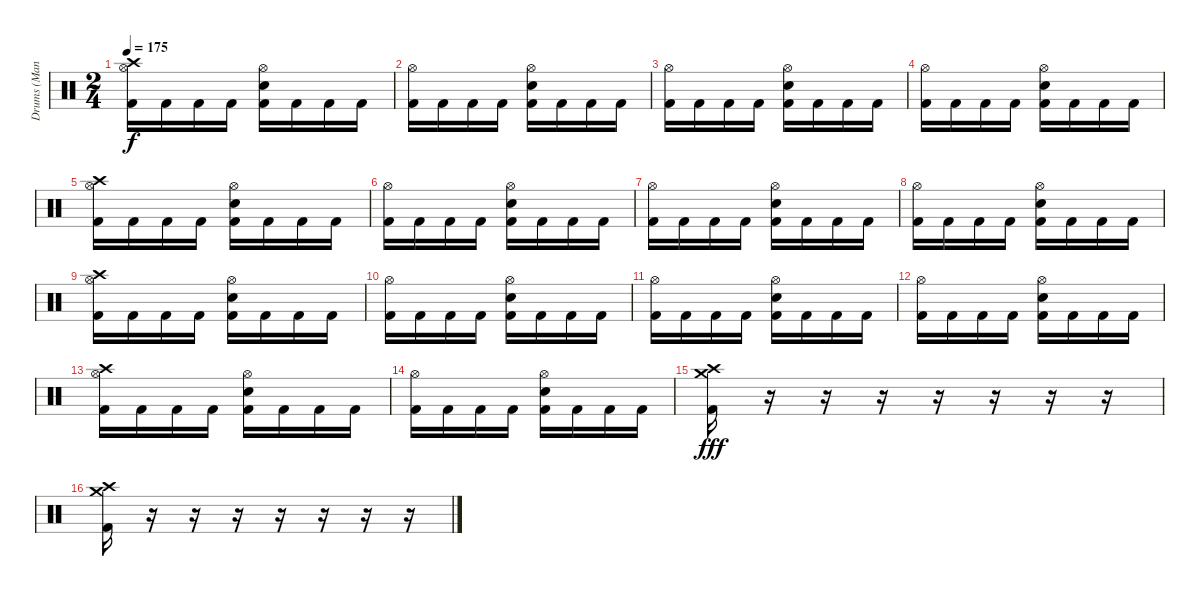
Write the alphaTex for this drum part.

\track ("Drums (Mancino)" "Drums (Man") {instrument percussion}
\staff {score}
\articulation defaults
\ts (2 4)
\tempo 175
\clef neutral
\ks c
("Hi-Hat (open)" "Crash high (hit)" "Kick (hit) 2").16{dy f} "Kick (hit) 2".16 "Kick (hit) 2".16 "Kick (hit) 2".16 ("Hi-Hat (open)" "Electric Snare (hit)" "Kick (hit) 2").16 "Kick (hit) 2".16 "Kick (hit) 2".16 "Kick (hit) 2".16 |
("Hi-Hat (open)" "Kick (hit) 2").16 "Kick (hit) 2".16 "Kick (hit) 2".16 "Kick (hit) 2".16 ("Hi-Hat (open)" "Electric Snare (hit)" "Kick (hit) 2").16 "Kick (hit) 2".16 "Kick (hit) 2".16 "Kick (hit) 2".16 |
("Hi-Hat (open)" "Kick (hit) 2").16 "Kick (hit) 2".16 "Kick (hit) 2".16 "Kick (hit) 2".16 ("Hi-Hat (open)" "Electric Snare (hit)" "Kick (hit) 2").16 "Kick (hit) 2".16 "Kick (hit) 2".16 "Kick (hit) 2".16 |
("Hi-Hat (open)" "Kick (hit) 2").16 "Kick (hit) 2".16 "Kick (hit) 2".16 "Kick (hit) 2".16 ("Hi-Hat (open)" "Electric Snare (hit)" "Kick (hit) 2").16 "Kick (hit) 2".16 "Kick (hit) 2".16 "Kick (hit) 2".16 |
("Hi-Hat (open)" "Crash high (hit)" "Kick (hit) 2").16 "Kick (hit) 2".16 "Kick (hit) 2".16 "Kick (hit) 2".16 ("Hi-Hat (open)" "Electric Snare (hit)" "Kick (hit) 2").16 "Kick (hit) 2".16 "Kick (hit) 2".16 "Kick (hit) 2".16 |
("Hi-Hat (open)" "Kick (hit) 2").16 "Kick (hit) 2".16 "Kick (hit) 2".16 "Kick (hit) 2".16 ("Hi-Hat (open)" "Electric Snare (hit)" "Kick (hit) 2").16 "Kick (hit) 2".16 "Kick (hit) 2".16 "Kick (hit) 2".16 |
("Hi-Hat (open)" "Kick (hit) 2").16 "Kick (hit) 2".16 "Kick (hit) 2".16 "Kick (hit) 2".16 ("Hi-Hat (open)" "Electric Snare (hit)" "Kick (hit) 2").16 "Kick (hit) 2".16 "Kick (hit) 2".16 "Kick (hit) 2".16 |
("Hi-Hat (open)" "Kick (hit) 2").16 "Kick (hit) 2".16 "Kick (hit) 2".16 "Kick (hit) 2".16 ("Hi-Hat (open)" "Electric Snare (hit)" "Kick (hit) 2").16 "Kick (hit) 2".16 "Kick (hit) 2".16 "Kick (hit) 2".16 |
("Hi-Hat (open)" "Crash high (hit)" "Kick (hit) 2").16 "Kick (hit) 2".16 "Kick (hit) 2".16 "Kick (hit) 2".16 ("Hi-Hat (open)" "Electric Snare (hit)" "Kick (hit) 2").16 "Kick (hit) 2".16 "Kick (hit) 2".16 "Kick (hit) 2".16 |
("Hi-Hat (open)" "Kick (hit) 2").16 "Kick (hit) 2".16 "Kick (hit) 2".16 "Kick (hit) 2".16 ("Hi-Hat (open)" "Electric Snare (hit)" "Kick (hit) 2").16 "Kick (hit) 2".16 "Kick (hit) 2".16 "Kick (hit) 2".16 |
("Hi-Hat (open)" "Kick (hit) 2").16 "Kick (hit) 2".16 "Kick (hit) 2".16 "Kick (hit) 2".16 ("Hi-Hat (open)" "Electric Snare (hit)" "Kick (hit) 2").16 "Kick (hit) 2".16 "Kick (hit) 2".16 "Kick (hit) 2".16 |
("Hi-Hat (open)" "Kick (hit) 2").16 "Kick (hit) 2".16 "Kick (hit) 2".16 "Kick (hit) 2".16 ("Hi-Hat (open)" "Electric Snare (hit)" "Kick (hit) 2").16 "Kick (hit) 2".16 "Kick (hit) 2".16 "Kick (hit) 2".16 |
("Hi-Hat (open)" "Crash high (hit)" "Kick (hit) 2").16 "Kick (hit) 2".16 "Kick (hit) 2".16 "Kick (hit) 2".16 ("Hi-Hat (open)" "Electric Snare (hit)" "Kick (hit) 2").16 "Kick (hit) 2".16 "Kick (hit) 2".16 "Kick (hit) 2".16 |
("Hi-Hat (open)" "Kick (hit) 2").16 "Kick (hit) 2".16 "Kick (hit) 2".16 "Kick (hit) 2".16 ("Hi-Hat (open)" "Electric Snare (hit)" "Kick (hit) 2").16 "Kick (hit) 2".16 "Kick (hit) 2".16 "Kick (hit) 2".16 |
("Crash medium (hit)" "Crash high (hit)" "Kick (hit) 2").16{dy fff} r.16 r.16 r.16 r.16 r.16 r.16 r.16 |
("Crash medium (hit)" "Crash high (hit)" "Kick (hit) 2").16 r.16 r.16 r.16 r.16 r.16 r.16 r.16
